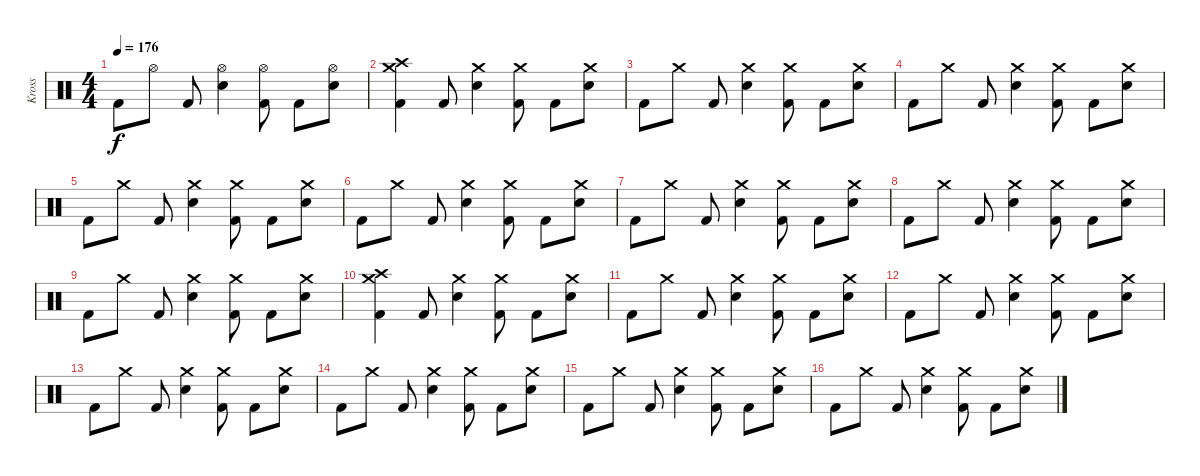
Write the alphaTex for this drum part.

\track ("Kross" "Kross") {instrument percussion}
\staff {score}
\articulation defaults
\ts (4 4)
\tempo 176
\clef neutral
\ks c "Kick (hit) 2".8{dy f} "Hi-Hat (open)".8 "Kick (hit) 2".8
("Hi-Hat (open)" "Electric Snare (hit)").4 ("Hi-Hat (open)" "Kick (hit) 2").8 "Kick (hit) 2".8 ("Hi-Hat (open)" "Electric Snare (hit)").8 |
("Crash medium (hit)" "Crash high (hit)" "Kick (hit) 2").4 "Kick (hit) 2".8 ("Crash medium (hit)" "Electric Snare (hit)").4 ("Crash medium (hit)" "Kick (hit) 2").8 "Kick (hit) 2".8 ("Crash medium (hit)" "Electric Snare (hit)").8 |
"Kick (hit) 2".8 "Crash medium (hit)".8 "Kick (hit) 2".8 ("Crash medium (hit)" "Electric Snare (hit)").4 ("Crash medium (hit)" "Kick (hit) 2").8 "Kick (hit) 2".8 ("Crash medium (hit)" "Electric Snare (hit)").8 |
"Kick (hit) 2".8 "Crash medium (hit)".8 "Kick (hit) 2".8 ("Crash medium (hit)" "Electric Snare (hit)").4 ("Crash medium (hit)" "Kick (hit) 2").8 "Kick (hit) 2".8 ("Crash medium (hit)" "Electric Snare (hit)").8 |
"Kick (hit) 2".8 "Crash medium (hit)".8 "Kick (hit) 2".8 ("Crash medium (hit)" "Electric Snare (hit)").4 ("Crash medium (hit)" "Kick (hit) 2").8 "Kick (hit) 2".8 ("Crash medium (hit)" "Electric Snare (hit)").8 |
"Kick (hit) 2".8 "Crash medium (hit)".8 "Kick (hit) 2".8 ("Crash medium (hit)" "Electric Snare (hit)").4 ("Crash medium (hit)" "Kick (hit) 2").8 "Kick (hit) 2".8 ("Crash medium (hit)" "Electric Snare (hit)").8 |
"Kick (hit) 2".8 "Crash medium (hit)".8 "Kick (hit) 2".8 ("Crash medium (hit)" "Electric Snare (hit)").4 ("Crash medium (hit)" "Kick (hit) 2").8 "Kick (hit) 2".8 ("Crash medium (hit)" "Electric Snare (hit)").8 |
"Kick (hit) 2".8 "Crash medium (hit)".8 "Kick (hit) 2".8 ("Crash medium (hit)" "Electric Snare (hit)").4 ("Crash medium (hit)" "Kick (hit) 2").8 "Kick (hit) 2".8 ("Crash medium (hit)" "Electric Snare (hit)").8 |
"Kick (hit) 2".8 "Crash medium (hit)".8 "Kick (hit) 2".8 ("Crash medium (hit)" "Electric Snare (hit)").4 ("Crash medium (hit)" "Kick (hit) 2").8 "Kick (hit) 2".8 ("Crash medium (hit)" "Electric Snare (hit)").8 |
("Crash medium (hit)" "Crash high (hit)" "Kick (hit) 2").4 "Kick (hit) 2".8 ("Crash medium (hit)" "Electric Snare (hit)").4 ("Crash medium (hit)" "Kick (hit) 2").8 "Kick (hit) 2".8 ("Crash medium (hit)" "Electric Snare (hit)").8 |
"Kick (hit) 2".8 "Crash medium (hit)".8 "Kick (hit) 2".8 ("Crash medium (hit)" "Electric Snare (hit)").4 ("Crash medium (hit)" "Kick (hit) 2").8 "Kick (hit) 2".8 ("Crash medium (hit)" "Electric Snare (hit)").8 |
"Kick (hit) 2".8 "Crash medium (hit)".8 "Kick (hit) 2".8 ("Crash medium (hit)" "Electric Snare (hit)").4 ("Crash medium (hit)" "Kick (hit) 2").8 "Kick (hit) 2".8 ("Crash medium (hit)" "Electric Snare (hit)").8 |
"Kick (hit) 2".8 "Crash medium (hit)".8 "Kick (hit) 2".8 ("Crash medium (hit)" "Electric Snare (hit)").4 ("Crash medium (hit)" "Kick (hit) 2").8 "Kick (hit) 2".8 ("Crash medium (hit)" "Electric Snare (hit)").8 |
"Kick (hit) 2".8 "Crash medium (hit)".8 "Kick (hit) 2".8 ("Crash medium (hit)" "Electric Snare (hit)").4 ("Crash medium (hit)" "Kick (hit) 2").8 "Kick (hit) 2".8 ("Crash medium (hit)" "Electric Snare (hit)").8 |
"Kick (hit) 2".8 "Crash medium (hit)".8 "Kick (hit) 2".8 ("Crash medium (hit)" "Electric Snare (hit)").4 ("Crash medium (hit)" "Kick (hit) 2").8 "Kick (hit) 2".8 ("Crash medium (hit)" "Electric Snare (hit)").8 |
"Kick (hit) 2".8 "Crash medium (hit)".8 "Kick (hit) 2".8 ("Crash medium (hit)" "Electric Snare (hit)").4 ("Crash medium (hit)" "Kick (hit) 2").8 "Kick (hit) 2".8 ("Crash medium (hit)" "Electric Snare (hit)").8
